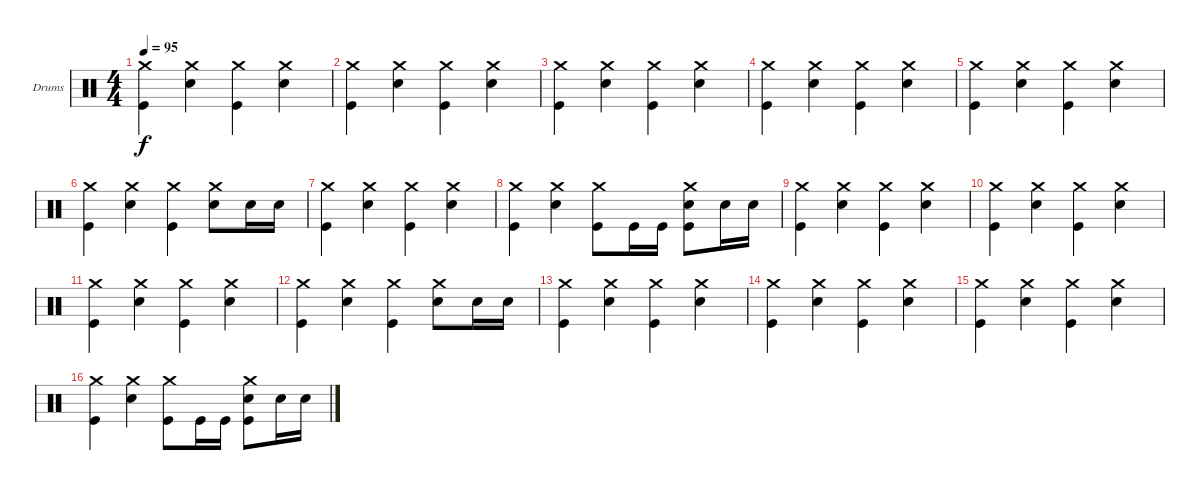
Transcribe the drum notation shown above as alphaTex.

\bracketExtendMode groupsimilarinstruments
\firstSystemTrackNameOrientation horizontal
\otherSystemsTrackNameOrientation horizontal
\track ("Drumkit" "Drums") {instrument percussion}
\staff {score}
\articulation defaults
\ts (4 4)
\tempo 95
\clef neutral
\ks c
("Crash medium (hit)" "Kick (hit)").4{dy f} ("Crash medium (hit)" "Snare (hit) 2").4 ("Crash medium (hit)" "Kick (hit)").4 ("Crash medium (hit)" "Snare (hit) 2").4 |
("Crash medium (hit)" "Kick (hit)").4 ("Crash medium (hit)" "Snare (hit) 2").4 ("Crash medium (hit)" "Kick (hit)").4 ("Crash medium (hit)" "Snare (hit) 2").4 |
("Crash medium (hit)" "Kick (hit)").4 ("Crash medium (hit)" "Snare (hit) 2").4 ("Crash medium (hit)" "Kick (hit)").4 ("Crash medium (hit)" "Snare (hit) 2").4 |
("Crash medium (hit)" "Kick (hit)").4 ("Crash medium (hit)" "Snare (hit) 2").4 ("Crash medium (hit)" "Kick (hit)").4 ("Crash medium (hit)" "Snare (hit) 2").4 |
("Crash medium (hit)" "Kick (hit)").4 ("Crash medium (hit)" "Snare (hit) 2").4 ("Crash medium (hit)" "Kick (hit)").4 ("Crash medium (hit)" "Snare (hit) 2").4 |
("Crash medium (hit)" "Kick (hit)").4 ("Crash medium (hit)" "Snare (hit) 2").4 ("Crash medium (hit)" "Kick (hit)").4 ("Crash medium (hit)" "Snare (hit) 2").8 "Snare (hit) 2".16 "Snare (hit) 2".16 |
("Crash medium (hit)" "Kick (hit)").4 ("Crash medium (hit)" "Snare (hit) 2").4 ("Crash medium (hit)" "Kick (hit)").4 ("Crash medium (hit)" "Snare (hit) 2").4 |
("Crash medium (hit)" "Kick (hit)").4 ("Crash medium (hit)" "Snare (hit) 2").4 ("Crash medium (hit)" "Kick (hit)").8 "Kick (hit)".16 "Kick (hit)".16 ("Crash medium (hit)" "Snare (hit) 2" "Kick (hit)").8 "Snare (hit) 2".16 "Snare (hit) 2".16 |
("Crash medium (hit)" "Kick (hit)").4 ("Crash medium (hit)" "Snare (hit) 2").4 ("Crash medium (hit)" "Kick (hit)").4 ("Crash medium (hit)" "Snare (hit) 2").4 |
("Crash medium (hit)" "Kick (hit)").4 ("Crash medium (hit)" "Snare (hit) 2").4 ("Crash medium (hit)" "Kick (hit)").4 ("Crash medium (hit)" "Snare (hit) 2").4 |
("Crash medium (hit)" "Kick (hit)").4 ("Crash medium (hit)" "Snare (hit) 2").4 ("Crash medium (hit)" "Kick (hit)").4 ("Crash medium (hit)" "Snare (hit) 2").4 |
("Crash medium (hit)" "Kick (hit)").4 ("Crash medium (hit)" "Snare (hit) 2").4 ("Crash medium (hit)" "Kick (hit)").4 ("Crash medium (hit)" "Snare (hit) 2").8 "Snare (hit) 2".16 "Snare (hit) 2".16 |
("Crash medium (hit)" "Kick (hit)").4 ("Crash medium (hit)" "Snare (hit) 2").4 ("Crash medium (hit)" "Kick (hit)").4 ("Crash medium (hit)" "Snare (hit) 2").4 |
("Crash medium (hit)" "Kick (hit)").4 ("Crash medium (hit)" "Snare (hit) 2").4 ("Crash medium (hit)" "Kick (hit)").4 ("Crash medium (hit)" "Snare (hit) 2").4 |
("Crash medium (hit)" "Kick (hit)").4 ("Crash medium (hit)" "Snare (hit) 2").4 ("Crash medium (hit)" "Kick (hit)").4 ("Crash medium (hit)" "Snare (hit) 2").4 |
("Crash medium (hit)" "Kick (hit)").4 ("Crash medium (hit)" "Snare (hit) 2").4 ("Crash medium (hit)" "Kick (hit)").8 "Kick (hit)".16 "Kick (hit)".16 ("Crash medium (hit)" "Snare (hit) 2" "Kick (hit)").8 "Snare (hit) 2".16 "Snare (hit) 2".16
